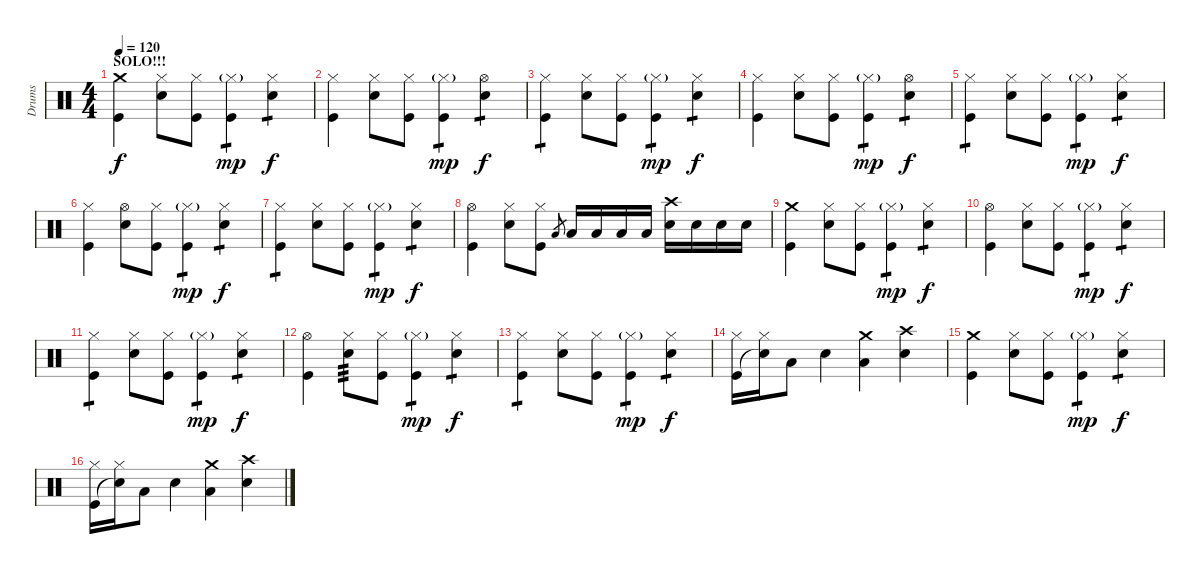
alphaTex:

\track ("Drums" "Drums") {instrument percussion}
\staff {score}
\articulation defaults
\ts (4 4)
\section ("" "SOLO!!!")
\tempo 120
\clef neutral
\ks c
("Crash medium (hit)" "Kick (hit)").4{dy f} ("Hi-Hat (closed)" "Snare (hit) 2").8 ("Hi-Hat (closed)" "Kick (hit)").8 ("Hi-Hat (closed)"{g} "Kick (hit)").4{tp 1 dy mp} ("Hi-Hat (closed)" "Snare (hit) 2").4{tp 1 dy f} |
("Hi-Hat (closed)" "Kick (hit)").4 ("Hi-Hat (closed)" "Snare (hit) 2").8 ("Hi-Hat (closed)" "Kick (hit)").8 ("Hi-Hat (closed)"{g} "Kick (hit)").4{tp 1 dy mp} ("Hi-Hat (open)" "Snare (hit) 2").4{tp 1 dy f} |
("Hi-Hat (closed)" "Kick (hit)").4{tp 1} ("Hi-Hat (closed)" "Snare (hit) 2").8 ("Hi-Hat (closed)" "Kick (hit)").8 ("Hi-Hat (closed)"{g} "Kick (hit)").4{tp 1 dy mp} ("Hi-Hat (closed)" "Snare (hit) 2").4{tp 1 dy f} |
("Hi-Hat (closed)" "Kick (hit)").4 ("Hi-Hat (closed)" "Snare (hit) 2").8 ("Hi-Hat (closed)" "Kick (hit)").8 ("Hi-Hat (closed)"{g} "Kick (hit)").4{tp 1 dy mp} ("Hi-Hat (open)" "Snare (hit) 2").4{tp 1 dy f} |
("Hi-Hat (closed)" "Kick (hit)").4{tp 1} ("Hi-Hat (closed)" "Snare (hit) 2").8 ("Hi-Hat (closed)" "Kick (hit)").8 ("Hi-Hat (closed)"{g} "Kick (hit)").4{tp 1 dy mp} ("Hi-Hat (closed)" "Snare (hit) 2").4{tp 1 dy f} |
("Hi-Hat (closed)" "Kick (hit)").4 ("Hi-Hat (open)" "Snare (hit) 2").8 ("Hi-Hat (closed)" "Kick (hit)").8 ("Hi-Hat (closed)"{g} "Kick (hit)").4{tp 1 dy mp} ("Hi-Hat (closed)" "Snare (hit) 2").4{tp 1 dy f} |
("Hi-Hat (closed)" "Kick (hit)").4{tp 1} ("Hi-Hat (closed)" "Snare (hit) 2").8 ("Hi-Hat (closed)" "Kick (hit)").8 ("Hi-Hat (closed)"{g} "Kick (hit)").4{tp 1 dy mp} ("Hi-Hat (closed)" "Snare (hit) 2").4{tp 1 dy f} |
("Hi-Hat (open)" "Kick (hit)").4 ("Hi-Hat (closed)" "Snare (hit) 2").8 ("Hi-Hat (closed)" "Kick (hit)").8 "Low Tom (hit)".8{gr} "Low Tom (hit)".16 "Low Tom (hit)".16 "Low Tom (hit)".16 "Low Tom (hit)".16 ("Crash high (hit)" "Snare (hit) 2").16 "Snare (hit) 2".16 "Snare (hit) 2".16 "Snare (hit) 2".16 |
("Crash medium (hit)" "Kick (hit)").4 ("Hi-Hat (closed)" "Snare (hit) 2").8 ("Hi-Hat (closed)" "Kick (hit)").8 ("Hi-Hat (closed)"{g} "Kick (hit)").4{tp 1 dy mp} ("Hi-Hat (closed)" "Snare (hit) 2").4{tp 1 dy f} |
("Hi-Hat (open)" "Kick (hit)").4 ("Hi-Hat (closed)" "Snare (hit) 2").8 ("Hi-Hat (closed)" "Kick (hit)").8 ("Hi-Hat (closed)"{g} "Kick (hit)").4{tp 1 dy mp} ("Hi-Hat (closed)" "Snare (hit) 2").4{tp 1 dy f} |
("Hi-Hat (closed)" "Kick (hit)").4{tp 1} ("Hi-Hat (closed)" "Snare (hit) 2").8 ("Hi-Hat (closed)" "Kick (hit)").8 ("Hi-Hat (closed)"{g} "Kick (hit)").4{tp 1 dy mp} ("Hi-Hat (closed)" "Snare (hit) 2").4{tp 1 dy f} |
("Hi-Hat (open)" "Kick (hit)").4 ("Hi-Hat (closed)" "Snare (hit) 2").8{tp 3} ("Hi-Hat (closed)" "Kick (hit)").8 ("Hi-Hat (closed)"{g} "Kick (hit)").4{tp 1 dy mp} ("Hi-Hat (closed)" "Snare (hit) 2").4{tp 1 dy f} |
("Hi-Hat (closed)" "Kick (hit)").4{tp 1} ("Hi-Hat (closed)" "Snare (hit) 2").8 ("Hi-Hat (closed)" "Kick (hit)").8 ("Hi-Hat (closed)"{g} "Kick (hit)").4{tp 1 dy mp} ("Hi-Hat (closed)" "Snare (hit) 2").4{tp 1 dy f} |
("Hi-Hat (closed)" "Kick (hit)").16 ("Hi-Hat (closed)" "Snare (hit)"{t}).16 "Low Tom (hit)".8 "Snare (hit) 2".4 ("Crash medium (hit)" "Low Tom (hit)").4 ("Crash high (hit)" "Snare (hit) 2").4 |
("Crash medium (hit)" "Kick (hit)").4 ("Hi-Hat (closed)" "Snare (hit) 2").8 ("Hi-Hat (closed)" "Kick (hit)").8 ("Hi-Hat (closed)"{g} "Kick (hit)").4{tp 1 dy mp} ("Hi-Hat (closed)" "Snare (hit) 2").4{tp 1 dy f} |
("Hi-Hat (closed)" "Kick (hit)").16 ("Hi-Hat (closed)" "Snare (hit)"{t}).16 "Low Tom (hit)".8 "Snare (hit) 2".4 ("Crash medium (hit)" "Low Tom (hit)").4 ("Crash high (hit)" "Snare (hit) 2").4
